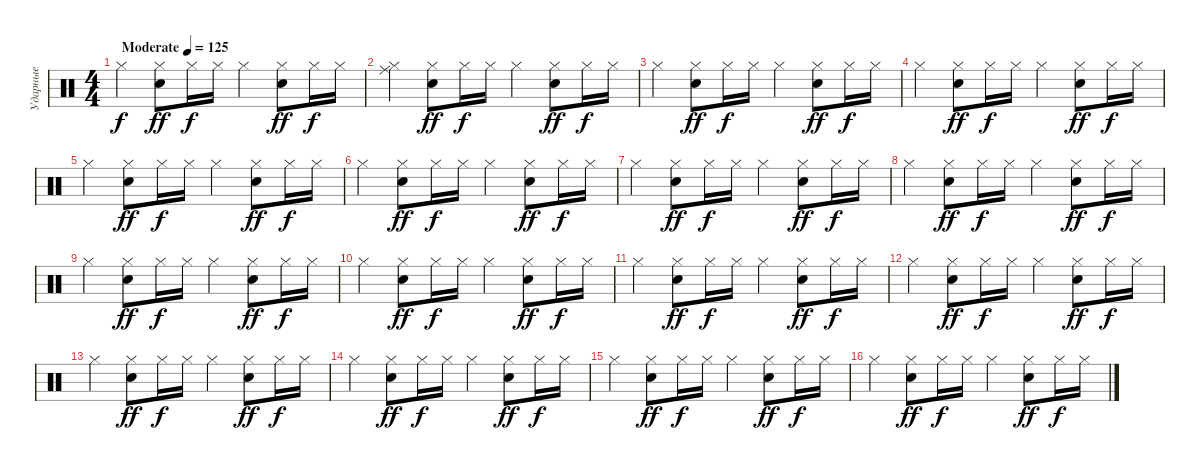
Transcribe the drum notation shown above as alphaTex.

\track ("Ударные" "Ударные") {instrument percussion}
\staff {score}
\articulation defaults
\ts (4 4)
\tempo (125 "Moderate")
\clef neutral
\ks c "Hi-Hat (closed)".4{dy f}
("Hi-Hat (closed)" "Electric Snare (hit)").8{dy ff} "Hi-Hat (closed)".16{dy f} "Hi-Hat (closed)".16 "Hi-Hat (closed)".4 ("Hi-Hat (closed)" "Electric Snare (hit)").8{dy ff} "Hi-Hat (closed)".16{dy f} "Hi-Hat (closed)".16 |
("Hi-Hat (closed)" "Ride (middle)").4 ("Hi-Hat (closed)" "Electric Snare (hit)").8{dy ff} "Hi-Hat (closed)".16{dy f} "Hi-Hat (closed)".16 "Hi-Hat (closed)".4 ("Hi-Hat (closed)" "Electric Snare (hit)").8{dy ff} "Hi-Hat (closed)".16{dy f} "Hi-Hat (closed)".16 |
"Hi-Hat (closed)".4 ("Hi-Hat (closed)" "Electric Snare (hit)").8{dy ff} "Hi-Hat (closed)".16{dy f} "Hi-Hat (closed)".16 "Hi-Hat (closed)".4 ("Hi-Hat (closed)" "Electric Snare (hit)").8{dy ff} "Hi-Hat (closed)".16{dy f} "Hi-Hat (closed)".16 |
"Hi-Hat (closed)".4 ("Hi-Hat (closed)" "Electric Snare (hit)").8{dy ff} "Hi-Hat (closed)".16{dy f} "Hi-Hat (closed)".16 "Hi-Hat (closed)".4 ("Hi-Hat (closed)" "Electric Snare (hit)").8{dy ff} "Hi-Hat (closed)".16{dy f} "Hi-Hat (closed)".16 |
"Hi-Hat (closed)".4 ("Hi-Hat (closed)" "Electric Snare (hit)").8{dy ff} "Hi-Hat (closed)".16{dy f} "Hi-Hat (closed)".16 "Hi-Hat (closed)".4 ("Hi-Hat (closed)" "Electric Snare (hit)").8{dy ff} "Hi-Hat (closed)".16{dy f} "Hi-Hat (closed)".16 |
"Hi-Hat (closed)".4 ("Hi-Hat (closed)" "Electric Snare (hit)").8{dy ff} "Hi-Hat (closed)".16{dy f} "Hi-Hat (closed)".16 "Hi-Hat (closed)".4 ("Hi-Hat (closed)" "Electric Snare (hit)").8{dy ff} "Hi-Hat (closed)".16{dy f} "Hi-Hat (closed)".16 |
"Hi-Hat (closed)".4 ("Hi-Hat (closed)" "Electric Snare (hit)").8{dy ff} "Hi-Hat (closed)".16{dy f} "Hi-Hat (closed)".16 "Hi-Hat (closed)".4 ("Hi-Hat (closed)" "Electric Snare (hit)").8{dy ff} "Hi-Hat (closed)".16{dy f} "Hi-Hat (closed)".16 |
"Hi-Hat (closed)".4 ("Hi-Hat (closed)" "Electric Snare (hit)").8{dy ff} "Hi-Hat (closed)".16{dy f} "Hi-Hat (closed)".16 "Hi-Hat (closed)".4 ("Hi-Hat (closed)" "Electric Snare (hit)").8{dy ff} "Hi-Hat (closed)".16{dy f} "Hi-Hat (closed)".16 |
"Hi-Hat (closed)".4 ("Hi-Hat (closed)" "Electric Snare (hit)").8{dy ff} "Hi-Hat (closed)".16{dy f} "Hi-Hat (closed)".16 "Hi-Hat (closed)".4 ("Hi-Hat (closed)" "Electric Snare (hit)").8{dy ff} "Hi-Hat (closed)".16{dy f} "Hi-Hat (closed)".16 |
"Hi-Hat (closed)".4 ("Hi-Hat (closed)" "Electric Snare (hit)").8{dy ff} "Hi-Hat (closed)".16{dy f} "Hi-Hat (closed)".16 "Hi-Hat (closed)".4 ("Hi-Hat (closed)" "Electric Snare (hit)").8{dy ff} "Hi-Hat (closed)".16{dy f} "Hi-Hat (closed)".16 |
"Hi-Hat (closed)".4 ("Hi-Hat (closed)" "Electric Snare (hit)").8{dy ff} "Hi-Hat (closed)".16{dy f} "Hi-Hat (closed)".16 "Hi-Hat (closed)".4 ("Hi-Hat (closed)" "Electric Snare (hit)").8{dy ff} "Hi-Hat (closed)".16{dy f} "Hi-Hat (closed)".16 |
"Hi-Hat (closed)".4 ("Hi-Hat (closed)" "Electric Snare (hit)").8{dy ff} "Hi-Hat (closed)".16{dy f} "Hi-Hat (closed)".16 "Hi-Hat (closed)".4 ("Hi-Hat (closed)" "Electric Snare (hit)").8{dy ff} "Hi-Hat (closed)".16{dy f} "Hi-Hat (closed)".16 |
"Hi-Hat (closed)".4 ("Hi-Hat (closed)" "Electric Snare (hit)").8{dy ff} "Hi-Hat (closed)".16{dy f} "Hi-Hat (closed)".16 "Hi-Hat (closed)".4 ("Hi-Hat (closed)" "Electric Snare (hit)").8{dy ff} "Hi-Hat (closed)".16{dy f} "Hi-Hat (closed)".16 |
"Hi-Hat (closed)".4 ("Hi-Hat (closed)" "Electric Snare (hit)").8{dy ff} "Hi-Hat (closed)".16{dy f} "Hi-Hat (closed)".16 "Hi-Hat (closed)".4 ("Hi-Hat (closed)" "Electric Snare (hit)").8{dy ff} "Hi-Hat (closed)".16{dy f} "Hi-Hat (closed)".16 |
"Hi-Hat (closed)".4 ("Hi-Hat (closed)" "Electric Snare (hit)").8{dy ff} "Hi-Hat (closed)".16{dy f} "Hi-Hat (closed)".16 "Hi-Hat (closed)".4 ("Hi-Hat (closed)" "Electric Snare (hit)").8{dy ff} "Hi-Hat (closed)".16{dy f} "Hi-Hat (closed)".16 |
"Hi-Hat (closed)".4 ("Hi-Hat (closed)" "Electric Snare (hit)").8{dy ff} "Hi-Hat (closed)".16{dy f} "Hi-Hat (closed)".16 "Hi-Hat (closed)".4 ("Hi-Hat (closed)" "Electric Snare (hit)").8{dy ff} "Hi-Hat (closed)".16{dy f} "Hi-Hat (closed)".16
